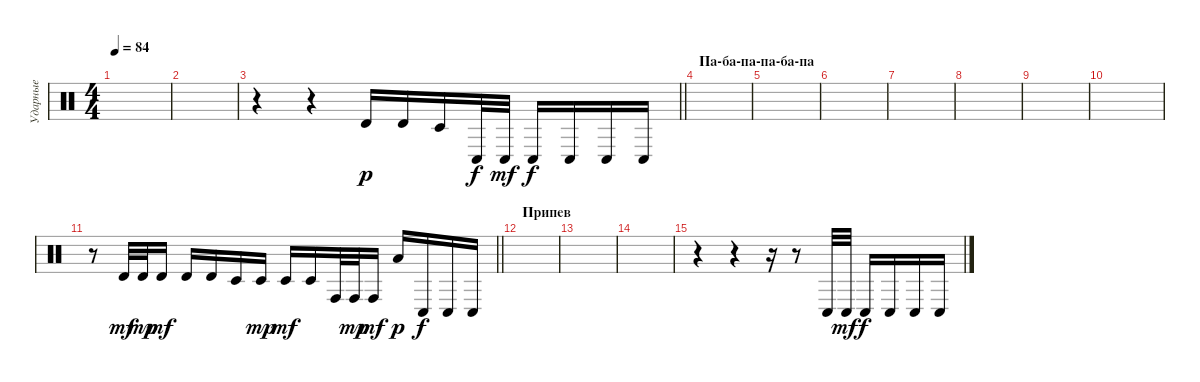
\track ("Ударные" "Ударные") {instrument percussion}
\staff {score}
\articulation defaults
\ts (4 4)
\tempo 84
\clef neutral
\ks c
|
|
\barLineRight lightlight
r.4 r.4 "Timbale high (hit)".16{dy p} "Timbale high (hit)".16 "Timbale low (hit)".16 "Conga low (hit)".32{dy f} "Conga low (hit)".32{dy mf} "Conga low (hit)".16{dy f} "Conga low (hit)".16 "Conga low (hit)".16 "Conga low (hit)".16 |
\section ("" "Па-ба-па-па-ба-па")
|
|
|
|
|
|
|
\barLineRight lightlight
r.8 "Timbale high (hit)".32{dy mf} "Timbale high (hit)".32{dy mp} "Timbale high (hit)".16{dy mf} "Timbale high (hit)".16 "Timbale high (hit)".16 "Timbale low (hit)".16 "Timbale low (hit)".16{dy mp} "Timbale low (hit)".16{dy mf} "Timbale low (hit)".16 "Conga high (hit)".32 "Conga high (hit)".32{dy mp} "Conga high (hit)".16{dy mf} "Low Tom (hit)".16{dy p} "Conga low (hit)".16{dy f} "Conga low (hit)".16 "Conga low (hit)".16 |
\section ("" "Припев")
|
|
|
r.4 r.4 r.16 r.8 "Conga low (hit)".32 "Conga low (hit)".32{dy mf} "Conga low (hit)".16{dy f} "Conga low (hit)".16 "Conga low (hit)".16 "Conga low (hit)".16
